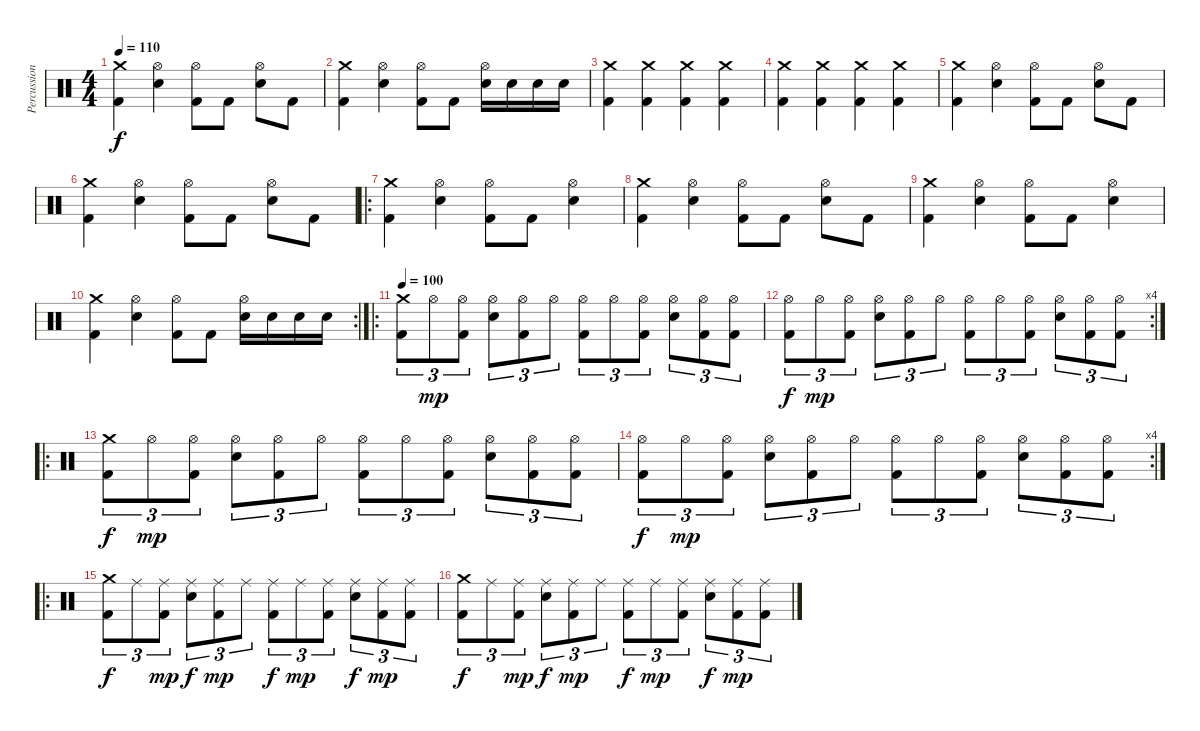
\track ("Percussion" "Percussion") {instrument percussion}
\staff {score}
\articulation defaults
\ts (4 4)
\tempo 110
\clef neutral
\ks c
("Crash medium (hit)" "Kick (hit) 2").4{dy f} ("Hi-Hat (open)" "Electric Snare (hit)").4 ("Hi-Hat (open)" "Kick (hit) 2").8 "Kick (hit) 2".8 ("Hi-Hat (open)" "Electric Snare (hit)").8 "Kick (hit) 2".8 |
("Crash medium (hit)" "Kick (hit) 2").4 ("Hi-Hat (open)" "Electric Snare (hit)").4 ("Hi-Hat (open)" "Kick (hit) 2").8 "Kick (hit) 2".8 ("Hi-Hat (open)" "Electric Snare (hit)").16 "Electric Snare (hit)".16 "Electric Snare (hit)".16 "Electric Snare (hit)".16 |
("Crash medium (hit)" "Kick (hit) 2").4 ("Crash medium (hit)" "Kick (hit) 2").4 ("Crash medium (hit)" "Kick (hit) 2").4 ("Crash medium (hit)" "Kick (hit) 2").4 |
("Crash medium (hit)" "Kick (hit) 2").4 ("Crash medium (hit)" "Kick (hit) 2").4 ("Crash medium (hit)" "Kick (hit) 2").4 ("Crash medium (hit)" "Kick (hit) 2").4 |
("Crash medium (hit)" "Kick (hit) 2").4 ("Hi-Hat (open)" "Electric Snare (hit)").4 ("Hi-Hat (open)" "Kick (hit) 2").8 "Kick (hit) 2".8 ("Hi-Hat (open)" "Electric Snare (hit)").8 "Kick (hit) 2".8 |
("Crash medium (hit)" "Kick (hit) 2").4 ("Hi-Hat (open)" "Electric Snare (hit)").4 ("Hi-Hat (open)" "Kick (hit) 2").8 "Kick (hit) 2".8 ("Hi-Hat (open)" "Electric Snare (hit)").8 "Kick (hit) 2".8 |
\ro
("Crash medium (hit)" "Kick (hit) 2").4 ("Hi-Hat (open)" "Electric Snare (hit)").4 ("Hi-Hat (open)" "Kick (hit) 2").8 "Kick (hit) 2".8 ("Hi-Hat (open)" "Electric Snare (hit)").4 |
("Crash medium (hit)" "Kick (hit) 2").4 ("Hi-Hat (open)" "Electric Snare (hit)").4 ("Hi-Hat (open)" "Kick (hit) 2").8 "Kick (hit) 2".8 ("Hi-Hat (open)" "Electric Snare (hit)").8 "Kick (hit) 2".8 |
("Crash medium (hit)" "Kick (hit) 2").4 ("Hi-Hat (open)" "Electric Snare (hit)").4 ("Hi-Hat (open)" "Kick (hit) 2").8 "Kick (hit) 2".8 ("Hi-Hat (open)" "Electric Snare (hit)").4 |
\rc 2
("Crash medium (hit)" "Kick (hit) 2").4 ("Hi-Hat (open)" "Electric Snare (hit)").4 ("Hi-Hat (open)" "Kick (hit) 2").8 "Kick (hit) 2".8 ("Hi-Hat (open)" "Electric Snare (hit)").16 "Electric Snare (hit)".16 "Electric Snare (hit)".16 "Electric Snare (hit)".16 |
\ro
\tempo 100
("Crash medium (hit)" "Kick (hit) 2").8{tu (3 2)} "Hi-Hat (open)".8{tu (3 2) dy mp} ("Hi-Hat (open)" "Kick (hit) 2").8{tu (3 2)} ("Hi-Hat (open)" "Electric Snare (hit)").8{tu (3 2)} ("Hi-Hat (open)" "Kick (hit) 2").8{tu (3 2)} "Hi-Hat (open)".8{tu (3 2)} ("Hi-Hat (open)" "Kick (hit) 2").8{tu (3 2)} "Hi-Hat (open)".8{tu (3 2)} ("Hi-Hat (open)" "Kick (hit) 2").8{tu (3 2)} ("Hi-Hat (open)" "Electric Snare (hit)").8{tu (3 2)} ("Hi-Hat (open)" "Kick (hit) 2").8{tu (3 2)} ("Hi-Hat (open)" "Kick (hit) 2").8{tu (3 2)} |
\rc 4
("Hi-Hat (open)" "Kick (hit) 2").8{tu (3 2) dy f} "Hi-Hat (open)".8{tu (3 2) dy mp} ("Hi-Hat (open)" "Kick (hit) 2").8{tu (3 2)} ("Hi-Hat (open)" "Electric Snare (hit)").8{tu (3 2)} ("Hi-Hat (open)" "Kick (hit) 2").8{tu (3 2)} "Hi-Hat (open)".8{tu (3 2)} ("Hi-Hat (open)" "Kick (hit) 2").8{tu (3 2)} "Hi-Hat (open)".8{tu (3 2)} ("Hi-Hat (open)" "Kick (hit) 2").8{tu (3 2)} ("Hi-Hat (open)" "Electric Snare (hit)").8{tu (3 2)} ("Hi-Hat (open)" "Kick (hit) 2").8{tu (3 2)} ("Hi-Hat (open)" "Kick (hit) 2").8{tu (3 2)} |
\ro
("Crash medium (hit)" "Kick (hit) 2").8{tu (3 2) dy f} "Hi-Hat (open)".8{tu (3 2) dy mp} ("Hi-Hat (open)" "Kick (hit) 2").8{tu (3 2)} ("Hi-Hat (open)" "Electric Snare (hit)").8{tu (3 2)} ("Hi-Hat (open)" "Kick (hit) 2").8{tu (3 2)} "Hi-Hat (open)".8{tu (3 2)} ("Hi-Hat (open)" "Kick (hit) 2").8{tu (3 2)} "Hi-Hat (open)".8{tu (3 2)} ("Hi-Hat (open)" "Kick (hit) 2").8{tu (3 2)} ("Hi-Hat (open)" "Electric Snare (hit)").8{tu (3 2)} ("Hi-Hat (open)" "Kick (hit) 2").8{tu (3 2)} ("Hi-Hat (open)" "Kick (hit) 2").8{tu (3 2)} |
\rc 4
("Hi-Hat (open)" "Kick (hit) 2").8{tu (3 2) dy f} "Hi-Hat (open)".8{tu (3 2) dy mp} ("Hi-Hat (open)" "Kick (hit) 2").8{tu (3 2)} ("Hi-Hat (open)" "Electric Snare (hit)").8{tu (3 2)} ("Hi-Hat (open)" "Kick (hit) 2").8{tu (3 2)} "Hi-Hat (open)".8{tu (3 2)} ("Hi-Hat (open)" "Kick (hit) 2").8{tu (3 2)} "Hi-Hat (open)".8{tu (3 2)} ("Hi-Hat (open)" "Kick (hit) 2").8{tu (3 2)} ("Hi-Hat (open)" "Electric Snare (hit)").8{tu (3 2)} ("Hi-Hat (open)" "Kick (hit) 2").8{tu (3 2)} ("Hi-Hat (open)" "Kick (hit) 2").8{tu (3 2)} |
\ro
("Crash medium (hit)" "Kick (hit) 2").8{tu (3 2) dy f} "Ride (middle)".8{tu (3 2)} ("Ride (middle)" "Kick (hit) 2").8{tu (3 2) dy mp} ("Ride (middle)" "Electric Snare (hit)").8{tu (3 2) dy f} ("Ride (middle)" "Kick (hit) 2").8{tu (3 2) dy mp} "Ride (middle)".8{tu (3 2)} ("Ride (middle)" "Kick (hit) 2").8{tu (3 2) dy f} "Ride (middle)".8{tu (3 2) dy mp} ("Ride (middle)" "Kick (hit) 2").8{tu (3 2)} ("Ride (middle)" "Electric Snare (hit)").8{tu (3 2) dy f} ("Ride (middle)" "Kick (hit) 2").8{tu (3 2) dy mp} ("Ride (middle)" "Kick (hit) 2").8{tu (3 2)} |
("Crash medium (hit)" "Kick (hit) 2").8{tu (3 2) dy f} "Ride (middle)".8{tu (3 2)} ("Ride (middle)" "Kick (hit) 2").8{tu (3 2) dy mp} ("Ride (middle)" "Electric Snare (hit)").8{tu (3 2) dy f} ("Ride (middle)" "Kick (hit) 2").8{tu (3 2) dy mp} "Ride (middle)".8{tu (3 2)} ("Ride (middle)" "Kick (hit) 2").8{tu (3 2) dy f} "Ride (middle)".8{tu (3 2) dy mp} ("Ride (middle)" "Kick (hit) 2").8{tu (3 2)} ("Ride (middle)" "Electric Snare (hit)").8{tu (3 2) dy f} ("Ride (middle)" "Kick (hit) 2").8{tu (3 2) dy mp} ("Ride (middle)" "Kick (hit) 2").8{tu (3 2)}
